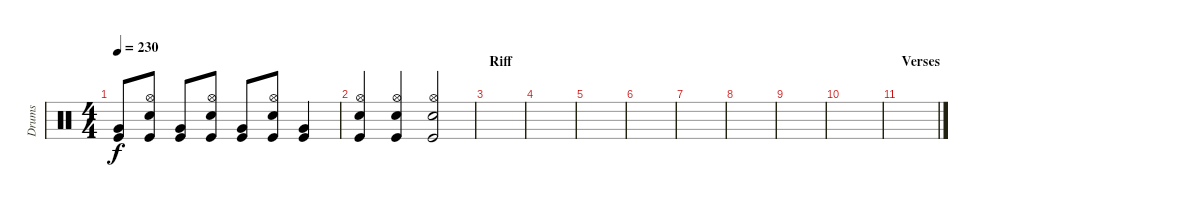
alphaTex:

\track ("Drums" "Drums") {instrument percussion}
\staff {score}
\articulation defaults
\ts (4 4)
\tempo 230
\clef neutral
\ks c
("Very Low Tom (hit)" "Kick (hit)").8{dy f} ("Hi-Hat (open)" "Snare (hit) 2" "Kick (hit)").8 ("Very Low Tom (hit)" "Kick (hit)").8 ("Hi-Hat (open)" "Snare (hit) 2" "Kick (hit)").8 ("Very Low Tom (hit)" "Kick (hit)").8 ("Hi-Hat (open)" "Snare (hit) 2" "Kick (hit)").8 ("Very Low Tom (hit)" "Kick (hit)").4 |
("Hi-Hat (open)" "Snare (hit) 2" "Kick (hit)").4 ("Hi-Hat (open)" "Snare (hit) 2" "Kick (hit)").4 ("Hi-Hat (open)" "Snare (hit) 2" "Kick (hit)").2 |
\section ("" "Riff")
|
|
|
|
|
|
|
|
\section ("" "Verses")
